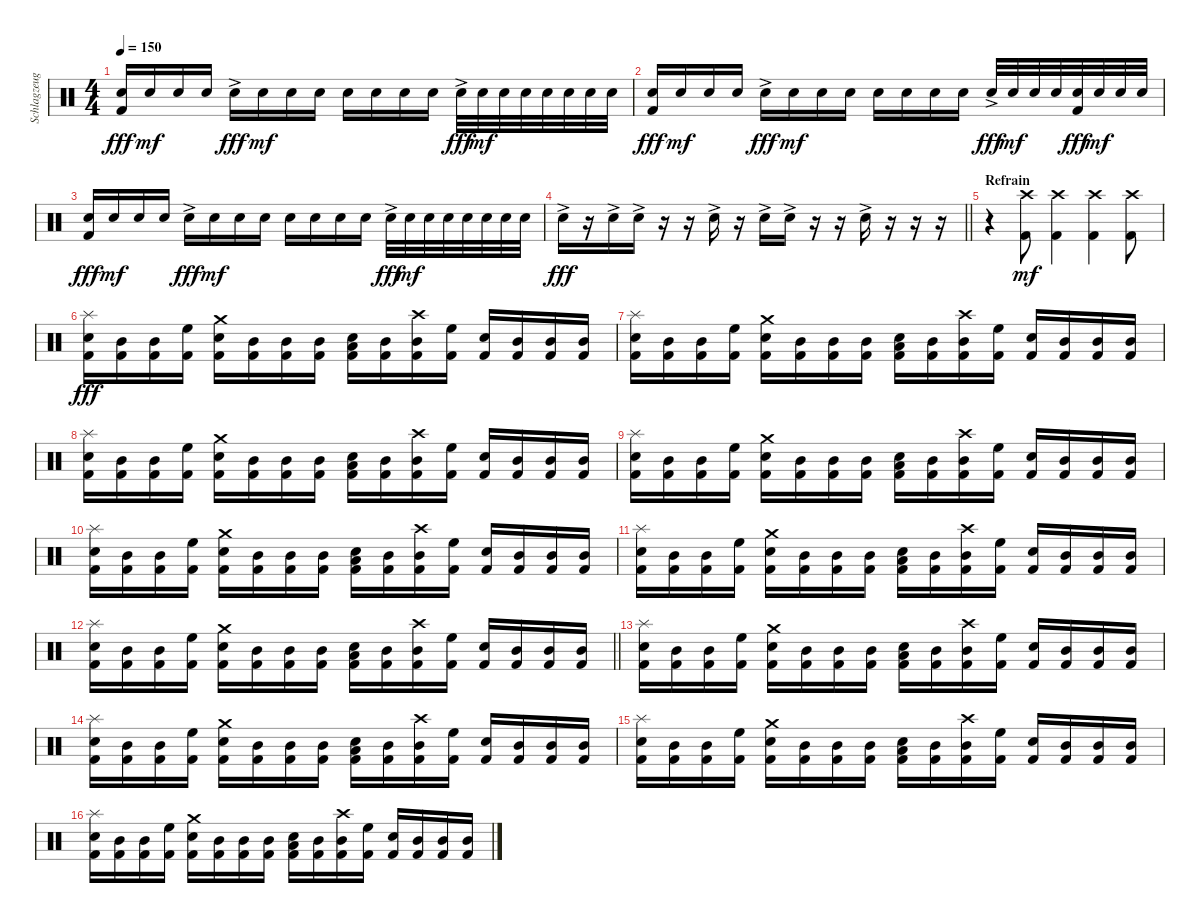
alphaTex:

\track ("Schlagzeug" "Schlagzeug") {instrument percussion}
\staff {score}
\articulation defaults
\ts (4 4)
\tempo 150
\clef neutral
\ks c
("Snare (hit) 2" "Kick (hit) 2").16{dy fff} "Snare (hit) 2".16{dy mf} "Snare (hit) 2".16 "Snare (hit) 2".16 "Snare (hit) 2"{ac}.16{dy fff} "Snare (hit) 2".16{dy mf} "Snare (hit) 2".16 "Snare (hit) 2".16 "Snare (hit) 2".16 "Snare (hit) 2".16 "Snare (hit) 2".16 "Snare (hit) 2".16 "Snare (hit) 2"{ac}.32{dy fff} "Snare (hit) 2".32{dy mf} "Snare (hit) 2".32 "Snare (hit) 2".32 "Snare (hit) 2".32 "Snare (hit) 2".32 "Snare (hit) 2".32 "Snare (hit) 2".32 |
("Snare (hit) 2" "Kick (hit) 2").16{dy fff} "Snare (hit) 2".16{dy mf} "Snare (hit) 2".16 "Snare (hit) 2".16 "Snare (hit) 2"{ac}.16{dy fff} "Snare (hit) 2".16{dy mf} "Snare (hit) 2".16 "Snare (hit) 2".16 "Snare (hit) 2".16 "Snare (hit) 2".16 "Snare (hit) 2".16 "Snare (hit) 2".16 "Snare (hit) 2"{ac}.32{dy fff} "Snare (hit) 2".32{dy mf} "Snare (hit) 2".32 "Snare (hit) 2".32 ("Snare (hit) 2" "Kick (hit) 2").32{dy fff} "Snare (hit) 2".32{dy mf} "Snare (hit) 2".32 "Snare (hit) 2".32 |
("Snare (hit) 2" "Kick (hit) 2").16{dy fff} "Snare (hit) 2".16{dy mf} "Snare (hit) 2".16 "Snare (hit) 2".16 "Snare (hit) 2"{ac}.16{dy fff} "Snare (hit) 2".16{dy mf} "Snare (hit) 2".16 "Snare (hit) 2".16 "Snare (hit) 2".16 "Snare (hit) 2".16 "Snare (hit) 2".16 "Snare (hit) 2".16 "Snare (hit) 2"{ac}.32{dy fff} "Snare (hit) 2".32{dy mf} "Snare (hit) 2".32 "Snare (hit) 2".32 "Snare (hit) 2".32 "Snare (hit) 2".32 "Snare (hit) 2".32 "Snare (hit) 2".32 |
\barLineRight lightlight "Snare (hit) 2"{ac}.16{dy fff}
r.16 "Snare (hit) 2"{ac}.16 "Snare (hit) 2"{ac}.16 r.16 r.16 "Snare (hit) 2"{ac}.16 r.16 "Snare (hit) 2"{ac}.16 "Snare (hit) 2"{ac}.16 r.16 r.16 "Snare (hit) 2"{ac}.16 r.16 r.16 r.16 |
\section ("" "Refrain")
r.4 ("Crash high (hit)" "Kick (hit) 2").8{dy mf} ("Crash high (hit)" "Kick (hit) 2").4 ("Crash high (hit)" "Kick (hit) 2").4 ("Crash high (hit)" "Kick (hit) 2").8 |
("Snare (hit) 2" "Splash (hit)" "Kick (hit) 2").16{dy fff} ("Mid Tom (hit)" "Kick (hit) 2").16 ("Mid Tom (hit)" "Kick (hit) 2").16 ("High Floor Tom (hit)" "Kick (hit) 2").16 ("Snare (hit) 2" "Crash medium (hit)" "Kick (hit) 2").16 ("Mid Tom (hit)" "Kick (hit) 2").16 ("Mid Tom (hit)" "Kick (hit) 2").16 ("Mid Tom (hit)" "Kick (hit) 2").16 ("Snare (hit) 2" "Low Tom (hit)" "Kick (hit) 2").16 ("Mid Tom (hit)" "Kick (hit) 2").16 ("Mid Tom (hit)" "Crash high (hit)" "Kick (hit) 2").16 ("High Floor Tom (hit)" "Kick (hit) 2").16 ("Snare (hit) 2" "Kick (hit) 2").16 ("Mid Tom (hit)" "Kick (hit) 2").16 ("Mid Tom (hit)" "Kick (hit) 2").16 ("Mid Tom (hit)" "Kick (hit) 2").16 |
("Snare (hit) 2" "Splash (hit)" "Kick (hit) 2").16 ("Mid Tom (hit)" "Kick (hit) 2").16 ("Mid Tom (hit)" "Kick (hit) 2").16 ("High Floor Tom (hit)" "Kick (hit) 2").16 ("Snare (hit) 2" "Crash medium (hit)" "Kick (hit) 2").16 ("Mid Tom (hit)" "Kick (hit) 2").16 ("Mid Tom (hit)" "Kick (hit) 2").16 ("Mid Tom (hit)" "Kick (hit) 2").16 ("Snare (hit) 2" "Low Tom (hit)" "Kick (hit) 2").16 ("Mid Tom (hit)" "Kick (hit) 2").16 ("Mid Tom (hit)" "Crash high (hit)" "Kick (hit) 2").16 ("High Floor Tom (hit)" "Kick (hit) 2").16 ("Snare (hit) 2" "Kick (hit) 2").16 ("Mid Tom (hit)" "Kick (hit) 2").16 ("Mid Tom (hit)" "Kick (hit) 2").16 ("Mid Tom (hit)" "Kick (hit) 2").16 |
("Snare (hit) 2" "Splash (hit)" "Kick (hit) 2").16 ("Mid Tom (hit)" "Kick (hit) 2").16 ("Mid Tom (hit)" "Kick (hit) 2").16 ("High Floor Tom (hit)" "Kick (hit) 2").16 ("Snare (hit) 2" "Crash medium (hit)" "Kick (hit) 2").16 ("Mid Tom (hit)" "Kick (hit) 2").16 ("Mid Tom (hit)" "Kick (hit) 2").16 ("Mid Tom (hit)" "Kick (hit) 2").16 ("Snare (hit) 2" "Low Tom (hit)" "Kick (hit) 2").16 ("Mid Tom (hit)" "Kick (hit) 2").16 ("Mid Tom (hit)" "Crash high (hit)" "Kick (hit) 2").16 ("High Floor Tom (hit)" "Kick (hit) 2").16 ("Snare (hit) 2" "Kick (hit) 2").16 ("Mid Tom (hit)" "Kick (hit) 2").16 ("Mid Tom (hit)" "Kick (hit) 2").16 ("Mid Tom (hit)" "Kick (hit) 2").16 |
("Snare (hit) 2" "Splash (hit)" "Kick (hit) 2").16 ("Mid Tom (hit)" "Kick (hit) 2").16 ("Mid Tom (hit)" "Kick (hit) 2").16 ("High Floor Tom (hit)" "Kick (hit) 2").16 ("Snare (hit) 2" "Crash medium (hit)" "Kick (hit) 2").16 ("Mid Tom (hit)" "Kick (hit) 2").16 ("Mid Tom (hit)" "Kick (hit) 2").16 ("Mid Tom (hit)" "Kick (hit) 2").16 ("Snare (hit) 2" "Low Tom (hit)" "Kick (hit) 2").16 ("Mid Tom (hit)" "Kick (hit) 2").16 ("Mid Tom (hit)" "Crash high (hit)" "Kick (hit) 2").16 ("High Floor Tom (hit)" "Kick (hit) 2").16 ("Snare (hit) 2" "Kick (hit) 2").16 ("Mid Tom (hit)" "Kick (hit) 2").16 ("Mid Tom (hit)" "Kick (hit) 2").16 ("Mid Tom (hit)" "Kick (hit) 2").16 |
("Snare (hit) 2" "Splash (hit)" "Kick (hit) 2").16 ("Mid Tom (hit)" "Kick (hit) 2").16 ("Mid Tom (hit)" "Kick (hit) 2").16 ("High Floor Tom (hit)" "Kick (hit) 2").16 ("Snare (hit) 2" "Crash medium (hit)" "Kick (hit) 2").16 ("Mid Tom (hit)" "Kick (hit) 2").16 ("Mid Tom (hit)" "Kick (hit) 2").16 ("Mid Tom (hit)" "Kick (hit) 2").16 ("Snare (hit) 2" "Low Tom (hit)" "Kick (hit) 2").16 ("Mid Tom (hit)" "Kick (hit) 2").16 ("Mid Tom (hit)" "Crash high (hit)" "Kick (hit) 2").16 ("High Floor Tom (hit)" "Kick (hit) 2").16 ("Snare (hit) 2" "Kick (hit) 2").16 ("Mid Tom (hit)" "Kick (hit) 2").16 ("Mid Tom (hit)" "Kick (hit) 2").16 ("Mid Tom (hit)" "Kick (hit) 2").16 |
("Snare (hit) 2" "Splash (hit)" "Kick (hit) 2").16 ("Mid Tom (hit)" "Kick (hit) 2").16 ("Mid Tom (hit)" "Kick (hit) 2").16 ("High Floor Tom (hit)" "Kick (hit) 2").16 ("Snare (hit) 2" "Crash medium (hit)" "Kick (hit) 2").16 ("Mid Tom (hit)" "Kick (hit) 2").16 ("Mid Tom (hit)" "Kick (hit) 2").16 ("Mid Tom (hit)" "Kick (hit) 2").16 ("Snare (hit) 2" "Low Tom (hit)" "Kick (hit) 2").16 ("Mid Tom (hit)" "Kick (hit) 2").16 ("Mid Tom (hit)" "Crash high (hit)" "Kick (hit) 2").16 ("High Floor Tom (hit)" "Kick (hit) 2").16 ("Snare (hit) 2" "Kick (hit) 2").16 ("Mid Tom (hit)" "Kick (hit) 2").16 ("Mid Tom (hit)" "Kick (hit) 2").16 ("Mid Tom (hit)" "Kick (hit) 2").16 |
\barLineRight lightlight
("Snare (hit) 2" "Splash (hit)" "Kick (hit) 2").16 ("Mid Tom (hit)" "Kick (hit) 2").16 ("Mid Tom (hit)" "Kick (hit) 2").16 ("High Floor Tom (hit)" "Kick (hit) 2").16 ("Snare (hit) 2" "Crash medium (hit)" "Kick (hit) 2").16 ("Mid Tom (hit)" "Kick (hit) 2").16 ("Mid Tom (hit)" "Kick (hit) 2").16 ("Mid Tom (hit)" "Kick (hit) 2").16 ("Snare (hit) 2" "Low Tom (hit)" "Kick (hit) 2").16 ("Mid Tom (hit)" "Kick (hit) 2").16 ("Mid Tom (hit)" "Crash high (hit)" "Kick (hit) 2").16 ("High Floor Tom (hit)" "Kick (hit) 2").16 ("Snare (hit) 2" "Kick (hit) 2").16 ("Mid Tom (hit)" "Kick (hit) 2").16 ("Mid Tom (hit)" "Kick (hit) 2").16 ("Mid Tom (hit)" "Kick (hit) 2").16 |
("Snare (hit) 2" "Splash (hit)" "Kick (hit) 2").16 ("Mid Tom (hit)" "Kick (hit) 2").16 ("Mid Tom (hit)" "Kick (hit) 2").16 ("High Floor Tom (hit)" "Kick (hit) 2").16 ("Snare (hit) 2" "Crash medium (hit)" "Kick (hit) 2").16 ("Mid Tom (hit)" "Kick (hit) 2").16 ("Mid Tom (hit)" "Kick (hit) 2").16 ("Mid Tom (hit)" "Kick (hit) 2").16 ("Snare (hit) 2" "Low Tom (hit)" "Kick (hit) 2").16 ("Mid Tom (hit)" "Kick (hit) 2").16 ("Mid Tom (hit)" "Crash high (hit)" "Kick (hit) 2").16 ("High Floor Tom (hit)" "Kick (hit) 2").16 ("Snare (hit) 2" "Kick (hit) 2").16 ("Mid Tom (hit)" "Kick (hit) 2").16 ("Mid Tom (hit)" "Kick (hit) 2").16 ("Mid Tom (hit)" "Kick (hit) 2").16 |
("Snare (hit) 2" "Splash (hit)" "Kick (hit) 2").16 ("Mid Tom (hit)" "Kick (hit) 2").16 ("Mid Tom (hit)" "Kick (hit) 2").16 ("High Floor Tom (hit)" "Kick (hit) 2").16 ("Snare (hit) 2" "Crash medium (hit)" "Kick (hit) 2").16 ("Mid Tom (hit)" "Kick (hit) 2").16 ("Mid Tom (hit)" "Kick (hit) 2").16 ("Mid Tom (hit)" "Kick (hit) 2").16 ("Snare (hit) 2" "Low Tom (hit)" "Kick (hit) 2").16 ("Mid Tom (hit)" "Kick (hit) 2").16 ("Mid Tom (hit)" "Crash high (hit)" "Kick (hit) 2").16 ("High Floor Tom (hit)" "Kick (hit) 2").16 ("Snare (hit) 2" "Kick (hit) 2").16 ("Mid Tom (hit)" "Kick (hit) 2").16 ("Mid Tom (hit)" "Kick (hit) 2").16 ("Mid Tom (hit)" "Kick (hit) 2").16 |
("Snare (hit) 2" "Splash (hit)" "Kick (hit) 2").16 ("Mid Tom (hit)" "Kick (hit) 2").16 ("Mid Tom (hit)" "Kick (hit) 2").16 ("High Floor Tom (hit)" "Kick (hit) 2").16 ("Snare (hit) 2" "Crash medium (hit)" "Kick (hit) 2").16 ("Mid Tom (hit)" "Kick (hit) 2").16 ("Mid Tom (hit)" "Kick (hit) 2").16 ("Mid Tom (hit)" "Kick (hit) 2").16 ("Snare (hit) 2" "Low Tom (hit)" "Kick (hit) 2").16 ("Mid Tom (hit)" "Kick (hit) 2").16 ("Mid Tom (hit)" "Crash high (hit)" "Kick (hit) 2").16 ("High Floor Tom (hit)" "Kick (hit) 2").16 ("Snare (hit) 2" "Kick (hit) 2").16 ("Mid Tom (hit)" "Kick (hit) 2").16 ("Mid Tom (hit)" "Kick (hit) 2").16 ("Mid Tom (hit)" "Kick (hit) 2").16 |
("Snare (hit) 2" "Splash (hit)" "Kick (hit) 2").16 ("Mid Tom (hit)" "Kick (hit) 2").16 ("Mid Tom (hit)" "Kick (hit) 2").16 ("High Floor Tom (hit)" "Kick (hit) 2").16 ("Snare (hit) 2" "Crash medium (hit)" "Kick (hit) 2").16 ("Mid Tom (hit)" "Kick (hit) 2").16 ("Mid Tom (hit)" "Kick (hit) 2").16 ("Mid Tom (hit)" "Kick (hit) 2").16 ("Snare (hit) 2" "Low Tom (hit)" "Kick (hit) 2").16 ("Mid Tom (hit)" "Kick (hit) 2").16 ("Mid Tom (hit)" "Crash high (hit)" "Kick (hit) 2").16 ("High Floor Tom (hit)" "Kick (hit) 2").16 ("Snare (hit) 2" "Kick (hit) 2").16 ("Mid Tom (hit)" "Kick (hit) 2").16 ("Mid Tom (hit)" "Kick (hit) 2").16 ("Mid Tom (hit)" "Kick (hit) 2").16
